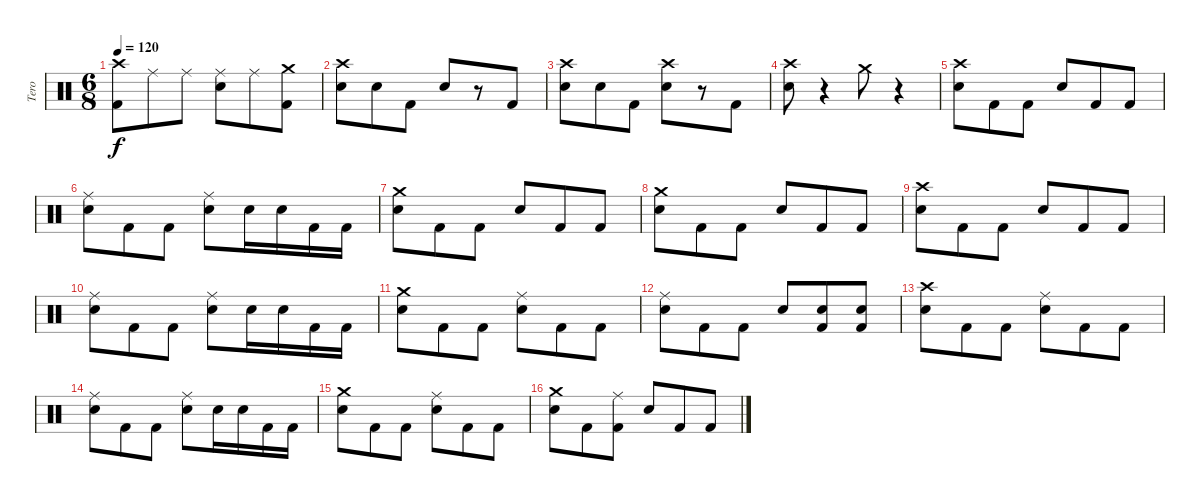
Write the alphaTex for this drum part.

\track ("Tero" "Tero") {instrument percussion}
\staff {score}
\articulation defaults
\ts (6 8)
\tempo 120
\clef neutral
\ks c
("Crash high (hit)" "Kick (hit) 2").8{dy f} "Ride (middle)".8 "Ride (middle)".8 ("Ride (middle)" "Snare (hit) 2").8 "Ride (middle)".8 ("Crash medium (hit)" "Kick (hit) 2").8 |
("Crash high (hit)" "Snare (hit) 2").8 "Snare (hit) 2".8 "Kick (hit) 2".8 "Snare (hit) 2".8 r.8 "Kick (hit) 2".8 |
("Snare (hit) 2" "Crash high (hit)").8 "Snare (hit) 2".8 "Kick (hit) 2".8 ("Snare (hit) 2" "Crash high (hit)").8 r.8 "Kick (hit) 2".8 |
("Snare (hit) 2" "Crash high (hit)").8 r.4 "Crash medium (hit)".8 r.4 |
("Snare (hit) 2" "Crash high (hit)").8 "Kick (hit) 2".8 "Kick (hit) 2".8 "Snare (hit) 2".8 "Kick (hit) 2".8 "Kick (hit) 2".8 |
("Ride (middle)" "Snare (hit) 2").8 "Kick (hit) 2".8 "Kick (hit) 2".8 ("Ride (middle)" "Snare (hit) 2").8 "Snare (hit) 2".16 "Snare (hit) 2".16 "Kick (hit) 2".16 "Kick (hit) 2".16 |
("Snare (hit) 2" "Crash medium (hit)").8 "Kick (hit) 2".8 "Kick (hit) 2".8 "Snare (hit) 2".8 "Kick (hit) 2".8 "Kick (hit) 2".8 |
("Crash medium (hit)" "Snare (hit) 2").8 "Kick (hit) 2".8 "Kick (hit) 2".8 "Snare (hit) 2".8 "Kick (hit) 2".8 "Kick (hit) 2".8 |
("Crash high (hit)" "Snare (hit) 2").8 "Kick (hit) 2".8 "Kick (hit) 2".8 "Snare (hit) 2".8 "Kick (hit) 2".8 "Kick (hit) 2".8 |
("Snare (hit) 2" "Ride (middle)").8 "Kick (hit) 2".8 "Kick (hit) 2".8 ("Snare (hit) 2" "Ride (middle)").8 "Snare (hit) 2".16 "Snare (hit) 2".16 "Kick (hit) 2".16 "Kick (hit) 2".16 |
("Crash medium (hit)" "Snare (hit) 2").8 "Kick (hit) 2".8 "Kick (hit) 2".8 ("Ride (middle)" "Snare (hit) 2").8 "Kick (hit) 2".8 "Kick (hit) 2".8 |
("Ride (middle)" "Snare (hit) 2").8 "Kick (hit) 2".8 "Kick (hit) 2".8 "Snare (hit) 2".8 ("Snare (hit) 2" "Kick (hit) 2").8 ("Snare (hit) 2" "Kick (hit) 2").8 |
("Crash high (hit)" "Snare (hit) 2").8 "Kick (hit) 2".8 "Kick (hit) 2".8 ("Ride (middle)" "Snare (hit) 2").8 "Kick (hit) 2".8 "Kick (hit) 2".8 |
("Ride (middle)" "Snare (hit) 2").8 "Kick (hit) 2".8 "Kick (hit) 2".8 ("Ride (middle)" "Snare (hit) 2").8 "Snare (hit) 2".16 "Snare (hit) 2".16 "Kick (hit) 2".16 "Kick (hit) 2".16 |
("Crash medium (hit)" "Snare (hit) 2").8 "Kick (hit) 2".8 "Kick (hit) 2".8 ("Ride (middle)" "Snare (hit) 2").8 "Kick (hit) 2".8 "Kick (hit) 2".8 |
("Crash medium (hit)" "Snare (hit) 2").8 "Kick (hit) 2".8 ("Ride (middle)" "Kick (hit) 2").8 "Snare (hit) 2".8 "Kick (hit) 2".8 "Kick (hit) 2".8
